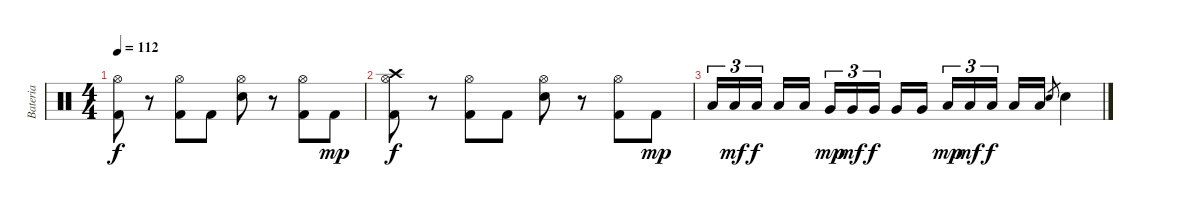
\track ("Bateria" "Bateria") {instrument percussion}
\staff {score}
\articulation defaults
\ts (4 4)
\tempo 112
\clef neutral
\ks c
("Hi-Hat (open)" "Kick (hit) 2").8{dy f} r.8 ("Hi-Hat (open)" "Kick (hit) 2").8 "Kick (hit) 2".8 ("Hi-Hat (open)" "Snare (hit) 2").8 r.8 ("Hi-Hat (open)" "Kick (hit) 2").8 "Kick (hit) 2".8{dy mp} |
("Hi-Hat (open)" "Kick (hit) 2" "Crash high (hit)").8{dy f} r.8 ("Hi-Hat (open)" "Kick (hit) 2").8 "Kick (hit) 2".8 ("Hi-Hat (open)" "Snare (hit) 2").8 r.8 ("Hi-Hat (open)" "Kick (hit) 2").8 "Kick (hit) 2".8{dy mp} |
"Low Tom (hit)".16{tu (3 2)} "Low Tom (hit)".16{tu (3 2) dy mf} "Low Tom (hit)".16{tu (3 2) dy f} "Low Tom (hit)".16 "Low Tom (hit)".16 "Very Low Tom (hit)".16{tu (3 2) dy mp} "Very Low Tom (hit)".16{tu (3 2) dy mf} "Very Low Tom (hit)".16{tu (3 2) dy f} "Very Low Tom (hit)".16 "Very Low Tom (hit)".16 "Low Floor Tom (hit)".16{tu (3 2) dy mp} "Low Floor Tom (hit)".16{tu (3 2) dy mf} "Low Floor Tom (hit)".16{tu (3 2) dy f} "Low Floor Tom (hit)".16 "Low Floor Tom (hit)".16 "Snare (hit) 2".8{gr} "Snare (hit) 2".4
